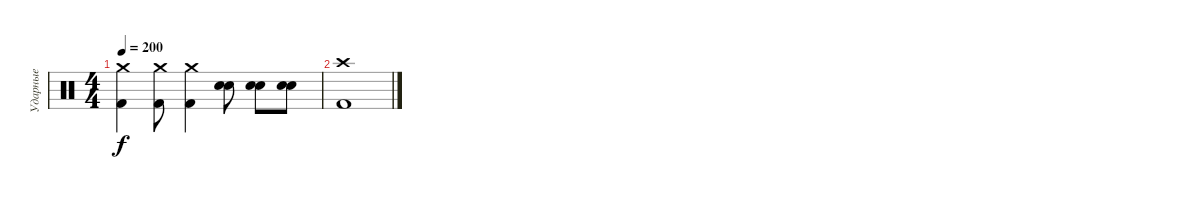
\track ("Ударные" "Ударные") {instrument percussion}
\staff {score}
\articulation defaults
\ts (4 4)
\tempo 200
\clef neutral
\ks c
("Crash medium (hit)" "Kick (hit) 2").4{dy f} ("Crash medium (hit)" "Kick (hit) 2").8 ("Crash medium (hit)" "Kick (hit) 2").4 ("Electric Snare (hit)" "Electric Snare (hit)").8 ("Electric Snare (hit)" "Electric Snare (hit)").8 ("Electric Snare (hit)" "Electric Snare (hit)").8 |
("Crash high (hit)" "Kick (hit) 2").1
